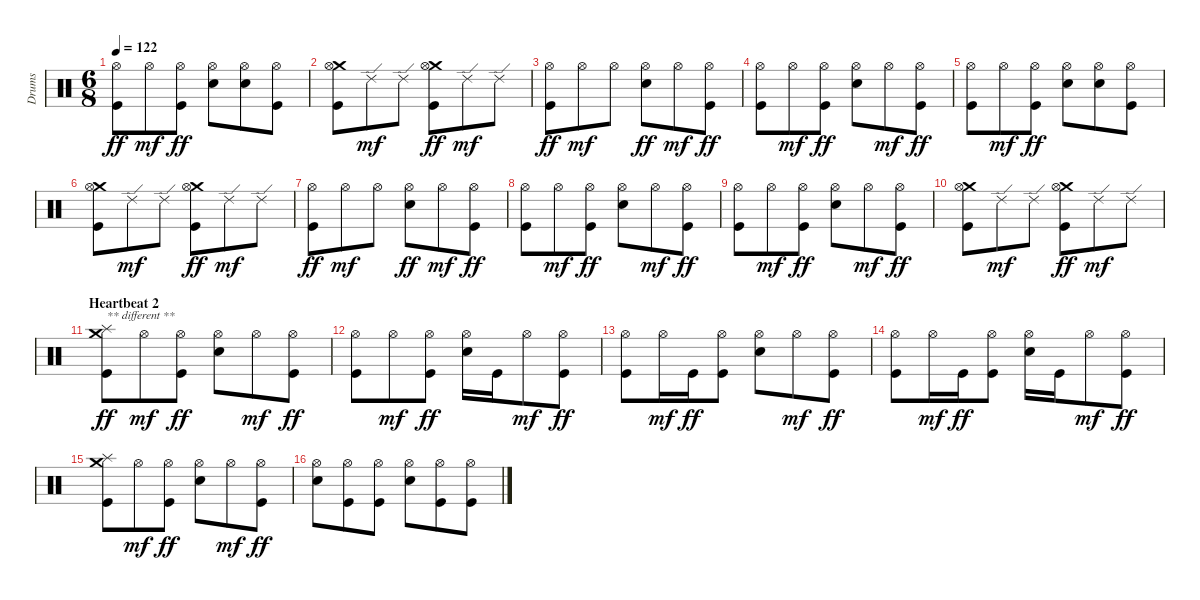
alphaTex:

\track ("Drums" "Drums") {instrument percussion}
\staff {score}
\articulation defaults
\ts (6 8)
\tempo 122
\clef neutral
\ks c
("Hi-Hat (open)" "Kick (hit)").8{dy ff} "Hi-Hat (open)".8{dy mf} ("Hi-Hat (open)" "Kick (hit)").8{dy ff} ("Hi-Hat (open)" "Electric Snare (hit)").8 ("Hi-Hat (open)" "Electric Snare (hit)").8 ("Hi-Hat (open)" "Kick (hit)").8 |
("Crash medium (hit)" "Hi-Hat (open)" "Kick (hit)").8 "Ride (edge) 2".8{dy mf} "Ride (edge) 2".8 ("Crash medium (hit)" "Hi-Hat (open)" "Kick (hit)").8{dy ff} "Ride (edge) 2".8{dy mf} "Ride (edge) 2".8 |
("Hi-Hat (open)" "Kick (hit)").8{dy ff} "Hi-Hat (open)".8{dy mf} "Hi-Hat (open)".8 ("Hi-Hat (open)" "Electric Snare (hit)").8{dy ff} "Hi-Hat (open)".8{dy mf} ("Hi-Hat (open)" "Kick (hit)").8{dy ff} |
("Hi-Hat (open)" "Kick (hit)").8 "Hi-Hat (open)".8{dy mf} ("Hi-Hat (open)" "Kick (hit)").8{dy ff} ("Hi-Hat (open)" "Electric Snare (hit)").8 "Hi-Hat (open)".8{dy mf} ("Hi-Hat (open)" "Kick (hit)").8{dy ff} |
("Hi-Hat (open)" "Kick (hit)").8 "Hi-Hat (open)".8{dy mf} ("Hi-Hat (open)" "Kick (hit)").8{dy ff} ("Hi-Hat (open)" "Electric Snare (hit)").8 ("Hi-Hat (open)" "Electric Snare (hit)").8 ("Hi-Hat (open)" "Kick (hit)").8 |
("Crash medium (hit)" "Hi-Hat (open)" "Kick (hit)").8 "Ride (edge) 2".8{dy mf} "Ride (edge) 2".8 ("Crash medium (hit)" "Hi-Hat (open)" "Kick (hit)").8{dy ff} "Ride (edge) 2".8{dy mf} "Ride (edge) 2".8 |
("Hi-Hat (open)" "Kick (hit)").8{dy ff} "Hi-Hat (open)".8{dy mf} "Hi-Hat (open)".8 ("Hi-Hat (open)" "Electric Snare (hit)").8{dy ff} "Hi-Hat (open)".8{dy mf} ("Hi-Hat (open)" "Kick (hit)").8{dy ff} |
("Hi-Hat (open)" "Kick (hit)").8 "Hi-Hat (open)".8{dy mf} ("Hi-Hat (open)" "Kick (hit)").8{dy ff} ("Hi-Hat (open)" "Electric Snare (hit)").8 "Hi-Hat (open)".8{dy mf} ("Hi-Hat (open)" "Kick (hit)").8{dy ff} |
("Hi-Hat (open)" "Kick (hit)").8 "Hi-Hat (open)".8{dy mf} ("Hi-Hat (open)" "Kick (hit)").8{dy ff} ("Hi-Hat (open)" "Electric Snare (hit)").8 "Hi-Hat (open)".8{dy mf} ("Hi-Hat (open)" "Kick (hit)").8{dy ff} |
("Crash medium (hit)" "Hi-Hat (open)" "Kick (hit)").8 "Ride (edge) 2".8{dy mf} "Ride (edge) 2".8 ("Crash medium (hit)" "Hi-Hat (open)" "Kick (hit)").8{dy ff} "Ride (edge) 2".8{dy mf} "Ride (edge) 2".8 |
\section ("" "Heartbeat 2")
("Splash (hit)" "Crash medium (hit)" "Kick (hit)").8{txt "** different **" dy ff} "Hi-Hat (open)".8{dy mf} ("Hi-Hat (open)" "Kick (hit)").8{dy ff} ("Hi-Hat (open)" "Electric Snare (hit)").8 "Hi-Hat (open)".8{dy mf} ("Hi-Hat (open)" "Kick (hit)").8{dy ff} |
("Hi-Hat (open)" "Kick (hit)").8 "Hi-Hat (open)".8{dy mf} ("Hi-Hat (open)" "Kick (hit)").8{dy ff} ("Hi-Hat (open)" "Electric Snare (hit)").16 "Kick (hit)".16 "Hi-Hat (open)".8{dy mf} ("Hi-Hat (open)" "Kick (hit)").8{dy ff} |
("Hi-Hat (open)" "Kick (hit)").8 "Hi-Hat (open)".16{dy mf} "Kick (hit)".16{dy ff} ("Hi-Hat (open)" "Kick (hit)").8 ("Hi-Hat (open)" "Electric Snare (hit)").8 "Hi-Hat (open)".8{dy mf} ("Hi-Hat (open)" "Kick (hit)").8{dy ff} |
("Hi-Hat (open)" "Kick (hit)").8 "Hi-Hat (open)".16{dy mf} "Kick (hit)".16{dy ff} ("Hi-Hat (open)" "Kick (hit)").8 ("Hi-Hat (open)" "Electric Snare (hit)").16 "Kick (hit)".16 "Hi-Hat (open)".8{dy mf} ("Hi-Hat (open)" "Kick (hit)").8{dy ff} |
("Splash (hit)" "Crash medium (hit)" "Kick (hit)").8 "Hi-Hat (open)".8{dy mf} ("Hi-Hat (open)" "Kick (hit)").8{dy ff} ("Hi-Hat (open)" "Electric Snare (hit)").8 "Hi-Hat (open)".8{dy mf} ("Hi-Hat (open)" "Kick (hit)").8{dy ff} |
("Hi-Hat (open)" "Electric Snare (hit)").8 ("Hi-Hat (open)" "Kick (hit)").8 ("Hi-Hat (open)" "Kick (hit)").8 ("Hi-Hat (open)" "Electric Snare (hit)").8 ("Hi-Hat (open)" "Kick (hit)").8 ("Hi-Hat (open)" "Kick (hit)").8
